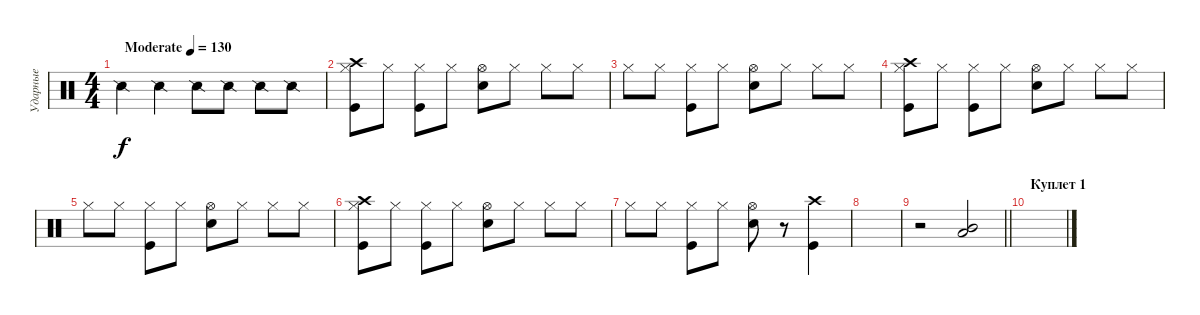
\track ("Ударные" "Ударные") {instrument percussion}
\staff {score}
\articulation defaults
\ts (4 4)
\tempo (130 "Moderate")
\clef neutral
\ks c "Snare (side stick) 2".4{dy f} "Snare (side stick) 2".4 "Snare (side stick) 2".8 "Snare (side stick) 2".8 "Snare (side stick) 2".8 "Snare (side stick) 2".8
|
("Crash high (hit)" "Hi-Hat (closed)" "Kick (hit)").8 "Hi-Hat (closed)".8 ("Hi-Hat (closed)" "Kick (hit)").8 "Hi-Hat (closed)".8 ("Hi-Hat (open)" "Snare (hit) 2").8 "Hi-Hat (closed)".8 "Hi-Hat (closed)".8 "Hi-Hat (closed)".8 |
"Hi-Hat (closed)".8 "Hi-Hat (closed)".8 ("Hi-Hat (closed)" "Kick (hit)").8 "Hi-Hat (closed)".8 ("Hi-Hat (open)" "Snare (hit) 2").8 "Hi-Hat (closed)".8 "Hi-Hat (closed)".8 "Hi-Hat (closed)".8 |
("Crash high (hit)" "Hi-Hat (closed)" "Kick (hit)").8 "Hi-Hat (closed)".8 ("Hi-Hat (closed)" "Kick (hit)").8 "Hi-Hat (closed)".8 ("Hi-Hat (open)" "Snare (hit) 2").8 "Hi-Hat (closed)".8 "Hi-Hat (closed)".8 "Hi-Hat (closed)".8 |
"Hi-Hat (closed)".8 "Hi-Hat (closed)".8 ("Hi-Hat (closed)" "Kick (hit)").8 "Hi-Hat (closed)".8 ("Hi-Hat (open)" "Snare (hit) 2").8 "Hi-Hat (closed)".8 "Hi-Hat (closed)".8 "Hi-Hat (closed)".8 |
("Crash high (hit)" "Hi-Hat (closed)" "Kick (hit)").8 "Hi-Hat (closed)".8 ("Hi-Hat (closed)" "Kick (hit)").8 "Hi-Hat (closed)".8 ("Hi-Hat (open)" "Snare (hit) 2").8 "Hi-Hat (closed)".8 "Hi-Hat (closed)".8 "Hi-Hat (closed)".8 |
"Hi-Hat (closed)".8 "Hi-Hat (closed)".8 ("Hi-Hat (closed)" "Kick (hit)").8 "Hi-Hat (closed)".8 ("Hi-Hat (open)" "Snare (hit) 2").8 r.8 ("Crash high (hit)" "Kick (hit)").4 |
|
\barLineRight lightlight
r.2 ("Low Tom (hit)" "Mid Tom (hit)").2 |
\section ("" "Куплет 1")
